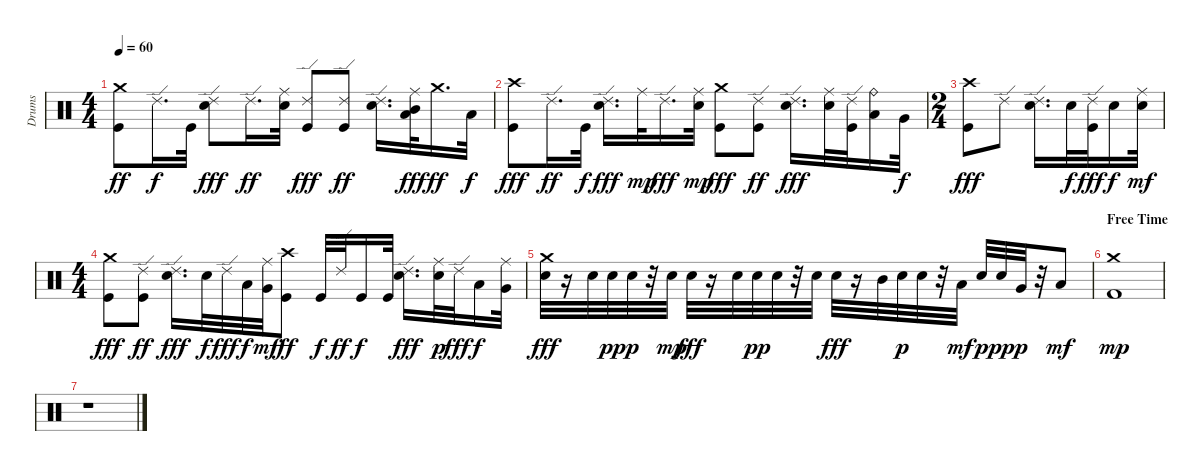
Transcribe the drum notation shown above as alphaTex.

\track ("Drums" "Drums") {instrument percussion}
\staff {score}
\articulation defaults
\ts (4 4)
\tempo 60
\clef neutral
\ks c
("Crash medium (hit)" "Kick (hit)").8{dy ff} "Ride (edge) 2".16{d dy f} "Kick (hit)".32 ("Ride (edge) 2" "Electric Snare (hit)").8{dy fff} "Ride (edge) 2".16{d dy ff} ("Ride (middle)" "Electric Snare (hit)").32 ("Ride (edge) 2" "Kick (hit)").8{dy fff} ("Ride (edge) 2" "Kick (hit)").8{dy ff} ("Ride (edge) 2" "Electric Snare (hit)").16{d} ("Ride (middle)" "Mid Tom (hit)" "Low Tom (hit)").32{dy fff} "Crash medium (hit)".16{d dy ff} "Low Floor Tom (hit)".32{dy f} |
("Crash high (hit)" "Kick (hit)").8{dy fff} "Ride (edge) 2".16{d dy ff} "Kick (hit)".32{dy f} ("Ride (edge) 2" "Electric Snare (hit)").16{d dy fff} "Ride (middle)".32{dy mp} "Ride (edge) 2".16{d dy fff} ("Ride (middle)" "Electric Snare (hit)").32{dy mp} ("Crash medium (hit)" "Kick (hit)").8{dy fff} ("Ride (edge) 2" "Kick (hit)").8{dy ff} ("Ride (edge) 2" "Electric Snare (hit)").16{d dy fff} ("Ride (middle)" "Electric Snare (hit)").32 ("Ride (edge) 2" "Kick (hit)").32 ("Ride (bell)" "Low Tom (hit)").16 "Very Low Tom (hit)".32{dy f} |
\ts (2 4)
("Crash high (hit)" "Kick (hit)").8{dy fff} "Ride (edge) 2".8 ("Ride (edge) 2" "Electric Snare (hit)").16{d} "Electric Snare (hit)".32{dy f} ("Ride (edge) 2" "Kick (hit)").32{dy fff} "Electric Snare (hit)".16{dy f} ("Ride (middle)" "Electric Snare (hit)").32{dy mf} |
\ts (4 4)
("Crash medium (hit)" "Kick (hit)").8{dy fff} ("Ride (edge) 2" "Kick (hit)").8{dy ff} ("Ride (edge) 2" "Electric Snare (hit)").16{d dy fff} "Electric Snare (hit)".32{dy f} "Ride (edge) 2".32{dy fff} "Low Tom (hit)".32{dy f} ("Ride (middle)" "Very Low Tom (hit)").32{dy mf} ("Crash high (hit)" "Kick (hit)").8{dy ff} "Kick (hit)".32{dy f} "Ride (edge) 2".32{dy ff} "Kick (hit)".16{dy f} "Kick (hit)".32 ("Ride (edge) 2" "Electric Snare (hit)").16{d dy fff} ("Ride (middle)" "Electric Snare (hit)").32{dy p} "Ride (edge) 2".32{dy fff} "Low Tom (hit)".16{dy f} ("Ride (middle)" "Very Low Tom (hit)").32 |
("Crash medium (hit)" "Electric Snare (hit)").32{dy fff} r.16 "Electric Snare (hit)".32 "Electric Snare (hit)".32{dy pp} "Electric Snare (hit)".32{dy p} r.32 "Electric Snare (hit)".32{dy mp} "Electric Snare (hit)".32{dy fff} r.16 "Electric Snare (hit)".32 "Electric Snare (hit)".32{dy pp} "Electric Snare (hit)".32 r.32 "Electric Snare (hit)".32 "Electric Snare (hit)".32{dy fff} r.16 "Mid Tom (hit)".32 "Electric Snare (hit)".32{dy p} "Electric Snare (hit)".32 r.32 "Low Tom (hit)".32{dy mf} "Electric Snare (hit)".32{dy p} "Electric Snare (hit)".32{dy pp} "Very Low Tom (hit)".32{dy p} r.32 "Low Floor Tom (hit)".8{dy mf} |
\section ("" "Free Time")
("Crash medium (hit)" "Kick (hit) 2").1{dy mp} |
r.1
